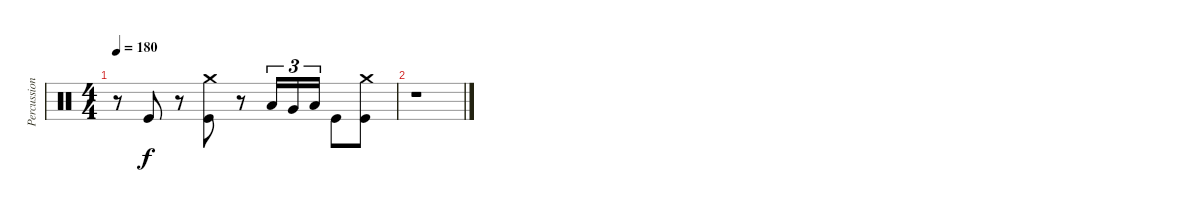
\track ("Percussions" "Percussion") {instrument percussion}
\staff {score}
\articulation defaults
\ts (4 4)
\tempo 180
\clef neutral
\ks c
r.8{dy f} "Kick (hit)".8 r.8 ("Kick (hit)" "Crash medium (hit)").8 r.8 "Low Floor Tom (hit)".16{tu (3 2)} "Very Low Tom (hit)".16{tu (3 2)} "Low Floor Tom (hit)".16{tu (3 2)} "Kick (hit)".8 ("Kick (hit)" "Crash medium (hit)").8 |
r.1
